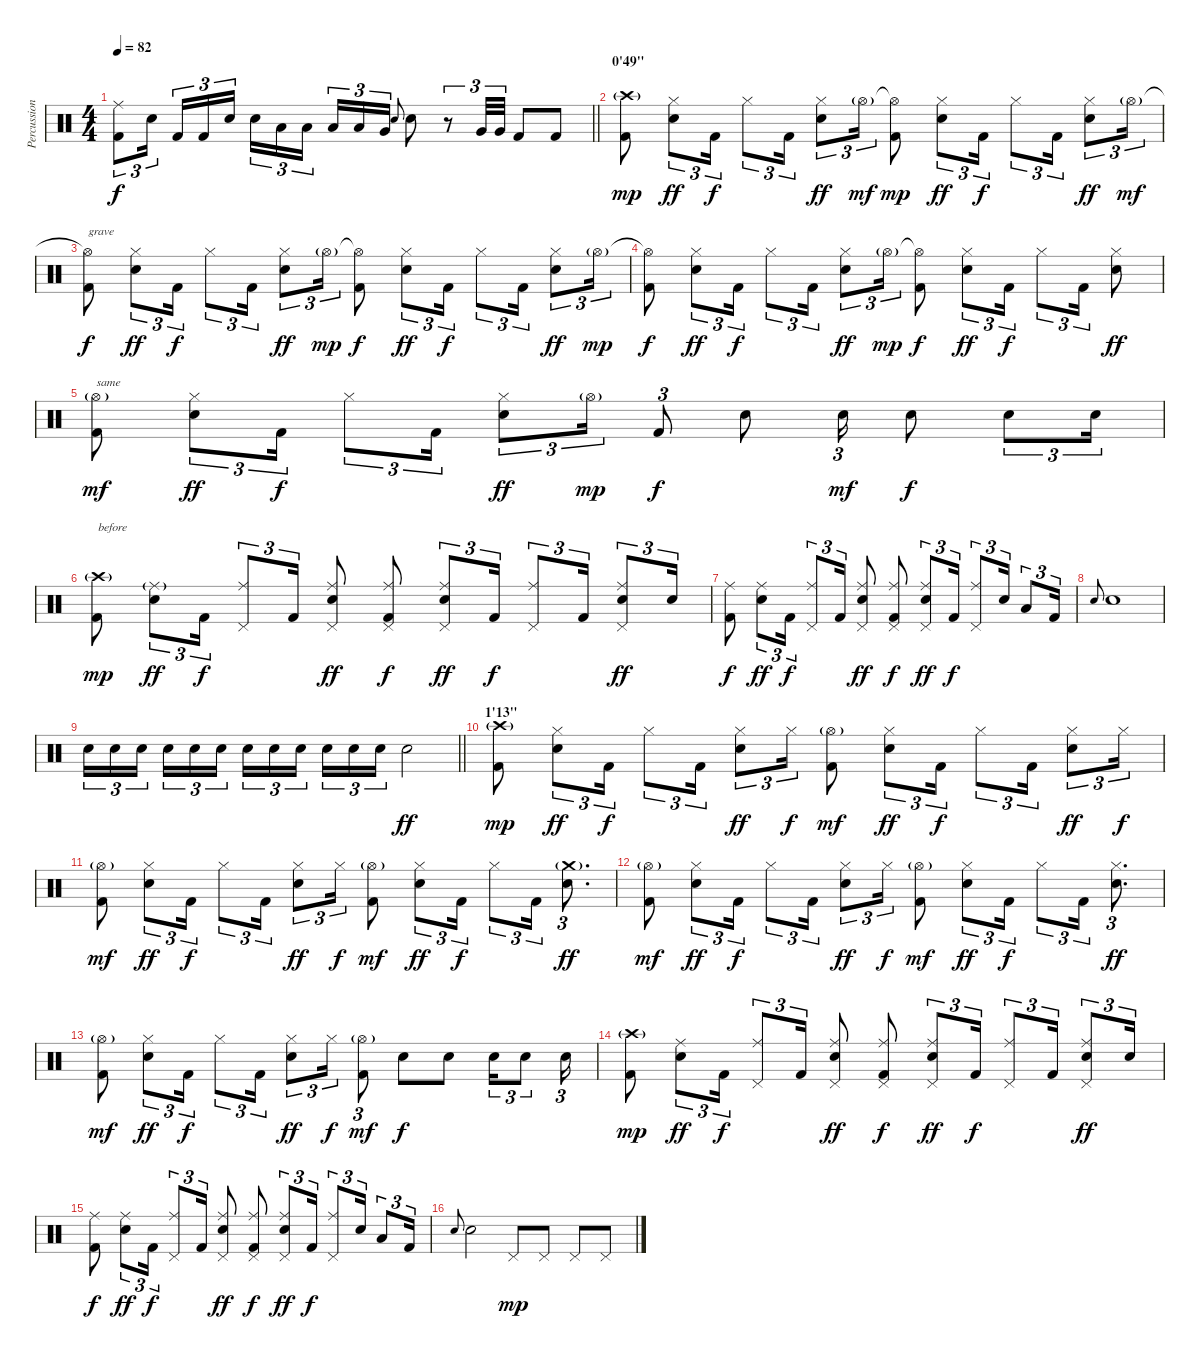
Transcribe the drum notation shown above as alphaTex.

\track ("Percussions" "Percussion") {instrument percussion}
\staff {score}
\articulation defaults
\ts (4 4)
\tempo 82
\clef neutral
\barLineRight lightlight
\ks c
("Ride (middle)" "Kick (hit) 2").8{tu (3 2) dy f} "Electric Snare (hit)".16{tu (3 2) beam splitsecondary} "Kick (hit) 2".16{tu (3 2)} "Kick (hit) 2".16{tu (3 2)} "Electric Snare (hit)".16{tu (3 2)} "Electric Snare (hit)".16{tu (3 2)} "Low Tom (hit)".16{tu (3 2)} "Low Tom (hit)".16{tu (3 2) beam splitsecondary} "Low Tom (hit)".16{tu (3 2)} "Low Tom (hit)".16{tu (3 2)} "Very Low Tom (hit)".16{tu (3 2)} "Electric Snare (hit)".8{gr onbeat} "Electric Snare (hit)".8 r.8{tu (3 2)} "Very Low Tom (hit)".32{tu (3 2)} "Very Low Tom (hit)".32{tu (3 2)} "Kick (hit) 2".8 "Kick (hit) 2".8 |
\section ("" "0'49\"")
("Crash high (hit)"{g} "Kick (hit) 2").8{dy mp} ("Hi-Hat (closed)" "Electric Snare (hit)").8{tu (3 2) dy ff} "Kick (hit) 2".16{tu (3 2) dy f} "Hi-Hat (closed)".8{tu (3 2)} "Kick (hit) 2".16{tu (3 2)} ("Hi-Hat (closed)" "Electric Snare (hit)").8{tu (3 2) dy ff} "Hi-Hat (open)"{g}.16{tu (3 2) dy mf} ("Hi-Hat (open)"{t} "Kick (hit) 2").8{dy mp} ("Hi-Hat (closed)" "Electric Snare (hit)").8{tu (3 2) dy ff} "Kick (hit) 2".16{tu (3 2) dy f} "Hi-Hat (closed)".8{tu (3 2)} "Kick (hit) 2".16{tu (3 2)} ("Hi-Hat (closed)" "Electric Snare (hit)").8{tu (3 2) dy ff} "Hi-Hat (open)"{g}.16{tu (3 2) dy mf} |
("Hi-Hat (open)"{t} "Kick (hit) 2").8{txt "grave" dy f} ("Hi-Hat (closed)" "Electric Snare (hit)").8{tu (3 2) dy ff} "Kick (hit) 2".16{tu (3 2) dy f} "Hi-Hat (closed)".8{tu (3 2)} "Kick (hit) 2".16{tu (3 2)} ("Hi-Hat (closed)" "Electric Snare (hit)").8{tu (3 2) dy ff} "Hi-Hat (open)"{g}.16{tu (3 2) dy mp} ("Hi-Hat (open)"{t} "Kick (hit) 2").8{dy f} ("Hi-Hat (closed)" "Electric Snare (hit)").8{tu (3 2) dy ff} "Kick (hit) 2".16{tu (3 2) dy f} "Hi-Hat (closed)".8{tu (3 2)} "Kick (hit) 2".16{tu (3 2)} ("Hi-Hat (closed)" "Electric Snare (hit)").8{tu (3 2) dy ff} "Hi-Hat (open)"{g}.16{tu (3 2) dy mp} |
("Hi-Hat (open)"{t} "Kick (hit) 2").8{dy f} ("Hi-Hat (closed)" "Electric Snare (hit)").8{tu (3 2) dy ff} "Kick (hit) 2".16{tu (3 2) dy f} "Hi-Hat (closed)".8{tu (3 2)} "Kick (hit) 2".16{tu (3 2)} ("Hi-Hat (closed)" "Electric Snare (hit)").8{tu (3 2) dy ff} "Hi-Hat (open)"{g}.16{tu (3 2) dy mp} ("Hi-Hat (open)"{t} "Kick (hit) 2").8{dy f} ("Hi-Hat (closed)" "Electric Snare (hit)").8{tu (3 2) dy ff} "Kick (hit) 2".16{tu (3 2) dy f} "Hi-Hat (closed)".8{tu (3 2)} "Kick (hit) 2".16{tu (3 2)} ("Hi-Hat (closed)" "Electric Snare (hit)").8{dy ff} |
("Hi-Hat (open)"{g} "Kick (hit) 2").8{txt "same" dy mf} ("Hi-Hat (closed)" "Electric Snare (hit)").8{tu (3 2) dy ff} "Kick (hit) 2".16{tu (3 2) dy f} "Hi-Hat (closed)".8{tu (3 2)} "Kick (hit) 2".16{tu (3 2)} ("Hi-Hat (closed)" "Electric Snare (hit)").8{tu (3 2) dy ff} "Hi-Hat (open)"{g}.16{tu (3 2) dy mp} "Kick (hit) 2".8{tu (3 2) dy f} "Electric Snare (hit)".8 "Electric Snare (hit)".16{tu (3 2) dy mf} "Electric Snare (hit)".8{dy f} "Electric Snare (hit)".8{tu (3 2)} "Electric Snare (hit)".16{tu (3 2)} |
("Crash high (hit)"{g} "Kick (hit) 2").8{txt "before" dy mp} ("Ride (middle)"{g} "Electric Snare (hit)").8{tu (3 2) dy ff} "Kick (hit) 2".16{tu (3 2) dy f} ("Ride (middle)" "Pedal Hi-Hat (hit)").8{tu (3 2)} "Kick (hit) 2".16{tu (3 2)} ("Ride (middle)" "Electric Snare (hit)" "Pedal Hi-Hat (hit)").8{dy ff} ("Ride (middle)" "Kick (hit) 2" "Pedal Hi-Hat (hit)").8{dy f} ("Ride (middle)" "Electric Snare (hit)" "Pedal Hi-Hat (hit)").8{tu (3 2) dy ff} "Kick (hit) 2".16{tu (3 2) dy f} ("Ride (middle)" "Pedal Hi-Hat (hit)").8{tu (3 2)} "Kick (hit) 2".16{tu (3 2)} ("Ride (middle)" "Electric Snare (hit)" "Pedal Hi-Hat (hit)").8{tu (3 2) dy ff} "Electric Snare (hit)".16{tu (3 2)} |
("Ride (middle)" "Kick (hit) 2").8{dy f} ("Ride (middle)" "Electric Snare (hit)").8{tu (3 2) dy ff} "Kick (hit) 2".16{tu (3 2) dy f} ("Ride (middle)" "Pedal Hi-Hat (hit)").8{tu (3 2)} "Kick (hit) 2".16{tu (3 2)} ("Ride (middle)" "Electric Snare (hit)" "Pedal Hi-Hat (hit)").8{dy ff} ("Ride (middle)" "Kick (hit) 2" "Pedal Hi-Hat (hit)").8{dy f} ("Ride (middle)" "Electric Snare (hit)" "Pedal Hi-Hat (hit)").8{tu (3 2) dy ff} "Kick (hit) 2".16{tu (3 2) dy f} ("Ride (middle)" "Pedal Hi-Hat (hit)").8{tu (3 2)} "Electric Snare (hit)".16{tu (3 2)} "Low Tom (hit)".8{tu (3 2)} "Kick (hit) 2".16{tu (3 2)} |
"Electric Snare (hit)".8{gr onbeat} "Electric Snare (hit)".1 |
\barLineRight lightlight "Electric Snare (hit)".16{tu (3 2)} "Electric Snare (hit)".16{tu (3 2)} "Electric Snare (hit)".16{tu (3 2) beam splitsecondary} "Electric Snare (hit)".16{tu (3 2)} "Electric Snare (hit)".16{tu (3 2)} "Electric Snare (hit)".16{tu (3 2)} "Electric Snare (hit)".16{tu (3 2)} "Electric Snare (hit)".16{tu (3 2)} "Electric Snare (hit)".16{tu (3 2) beam splitsecondary} "Electric Snare (hit)".16{tu (3 2)} "Electric Snare (hit)".16{tu (3 2)} "Electric Snare (hit)".16{tu (3 2)} "Electric Snare (hit)".2{dy ff}
|
\section ("" "1'13\"")
("Crash high (hit)"{g} "Kick (hit) 2").8{dy mp} ("Hi-Hat (closed)" "Electric Snare (hit)").8{tu (3 2) dy ff} "Kick (hit) 2".16{tu (3 2) dy f} "Hi-Hat (closed)".8{tu (3 2)} "Kick (hit) 2".16{tu (3 2)} ("Hi-Hat (closed)" "Electric Snare (hit)").8{tu (3 2) dy ff} "Hi-Hat (closed)".16{tu (3 2) dy f} ("Hi-Hat (open)"{g} "Kick (hit) 2").8{dy mf} ("Hi-Hat (closed)" "Electric Snare (hit)").8{tu (3 2) dy ff} "Kick (hit) 2".16{tu (3 2) dy f} "Hi-Hat (closed)".8{tu (3 2)} "Kick (hit) 2".16{tu (3 2)} ("Hi-Hat (closed)" "Electric Snare (hit)").8{tu (3 2) dy ff} "Hi-Hat (closed)".16{tu (3 2) dy f} |
("Hi-Hat (open)"{g} "Kick (hit) 2").8{dy mf} ("Hi-Hat (closed)" "Electric Snare (hit)").8{tu (3 2) dy ff} "Kick (hit) 2".16{tu (3 2) dy f} "Hi-Hat (closed)".8{tu (3 2)} "Kick (hit) 2".16{tu (3 2)} ("Hi-Hat (closed)" "Electric Snare (hit)").8{tu (3 2) dy ff} "Hi-Hat (closed)".16{tu (3 2) dy f} ("Hi-Hat (open)"{g} "Kick (hit) 2").8{dy mf} ("Hi-Hat (closed)" "Electric Snare (hit)").8{tu (3 2) dy ff} "Kick (hit) 2".16{tu (3 2) dy f} "Hi-Hat (closed)".8{tu (3 2)} "Kick (hit) 2".16{tu (3 2)} ("Crash medium (hit)"{g} "Electric Snare (hit)").8{d tu (3 2) dy ff} |
("Hi-Hat (open)"{g} "Kick (hit) 2").8{dy mf} ("Hi-Hat (closed)" "Electric Snare (hit)").8{tu (3 2) dy ff} "Kick (hit) 2".16{tu (3 2) dy f} "Hi-Hat (closed)".8{tu (3 2)} "Kick (hit) 2".16{tu (3 2)} ("Hi-Hat (closed)" "Electric Snare (hit)").8{tu (3 2) dy ff} "Hi-Hat (closed)".16{tu (3 2) dy f} ("Hi-Hat (open)"{g} "Kick (hit) 2").8{dy mf} ("Hi-Hat (closed)" "Electric Snare (hit)").8{tu (3 2) dy ff} "Kick (hit) 2".16{tu (3 2) dy f} "Hi-Hat (closed)".8{tu (3 2)} "Kick (hit) 2".16{tu (3 2)} ("Hi-Hat (closed)" "Electric Snare (hit)").8{d tu (3 2) dy ff} |
("Hi-Hat (open)"{g} "Kick (hit) 2").8{dy mf} ("Hi-Hat (closed)" "Electric Snare (hit)").8{tu (3 2) dy ff} "Kick (hit) 2".16{tu (3 2) dy f} "Hi-Hat (closed)".8{tu (3 2)} "Kick (hit) 2".16{tu (3 2)} ("Hi-Hat (closed)" "Electric Snare (hit)").8{tu (3 2) dy ff} "Hi-Hat (closed)".16{tu (3 2) dy f} ("Hi-Hat (open)"{g} "Kick (hit) 2").8{tu (3 2) dy mf} "Electric Snare (hit)".8{dy f} "Electric Snare (hit)".8 "Electric Snare (hit)".16{tu (3 2)} "Electric Snare (hit)".8{tu (3 2)} "Electric Snare (hit)".16{tu (3 2)} |
("Crash high (hit)"{g} "Kick (hit) 2").8{dy mp} ("Ride (middle)" "Electric Snare (hit)").8{tu (3 2) dy ff} "Kick (hit) 2".16{tu (3 2) dy f} ("Ride (middle)" "Pedal Hi-Hat (hit)").8{tu (3 2)} "Kick (hit) 2".16{tu (3 2)} ("Ride (middle)" "Electric Snare (hit)" "Pedal Hi-Hat (hit)").8{dy ff} ("Ride (middle)" "Kick (hit) 2" "Pedal Hi-Hat (hit)").8{dy f} ("Ride (middle)" "Electric Snare (hit)" "Pedal Hi-Hat (hit)").8{tu (3 2) dy ff} "Kick (hit) 2".16{tu (3 2) dy f} ("Ride (middle)" "Pedal Hi-Hat (hit)").8{tu (3 2)} "Kick (hit) 2".16{tu (3 2)} ("Ride (middle)" "Electric Snare (hit)" "Pedal Hi-Hat (hit)").8{tu (3 2) dy ff} "Electric Snare (hit)".16{tu (3 2)} |
("Ride (middle)" "Kick (hit) 2").8{dy f} ("Ride (middle)" "Electric Snare (hit)").8{tu (3 2) dy ff} "Kick (hit) 2".16{tu (3 2) dy f} ("Ride (middle)" "Pedal Hi-Hat (hit)").8{tu (3 2)} "Kick (hit) 2".16{tu (3 2)} ("Ride (middle)" "Electric Snare (hit)" "Pedal Hi-Hat (hit)").8{dy ff} ("Ride (middle)" "Kick (hit) 2" "Pedal Hi-Hat (hit)").8{dy f} ("Ride (middle)" "Electric Snare (hit)" "Pedal Hi-Hat (hit)").8{tu (3 2) dy ff} "Kick (hit) 2".16{tu (3 2) dy f} ("Ride (middle)" "Pedal Hi-Hat (hit)").8{tu (3 2)} "Electric Snare (hit)".16{tu (3 2)} "Low Tom (hit)".8{tu (3 2)} "Kick (hit) 2".16{tu (3 2)} |
"Electric Snare (hit)".8{gr onbeat} "Electric Snare (hit)".2 "Pedal Hi-Hat (hit)".8{dy mp} "Pedal Hi-Hat (hit)".8 "Pedal Hi-Hat (hit)".8 "Pedal Hi-Hat (hit)".8
